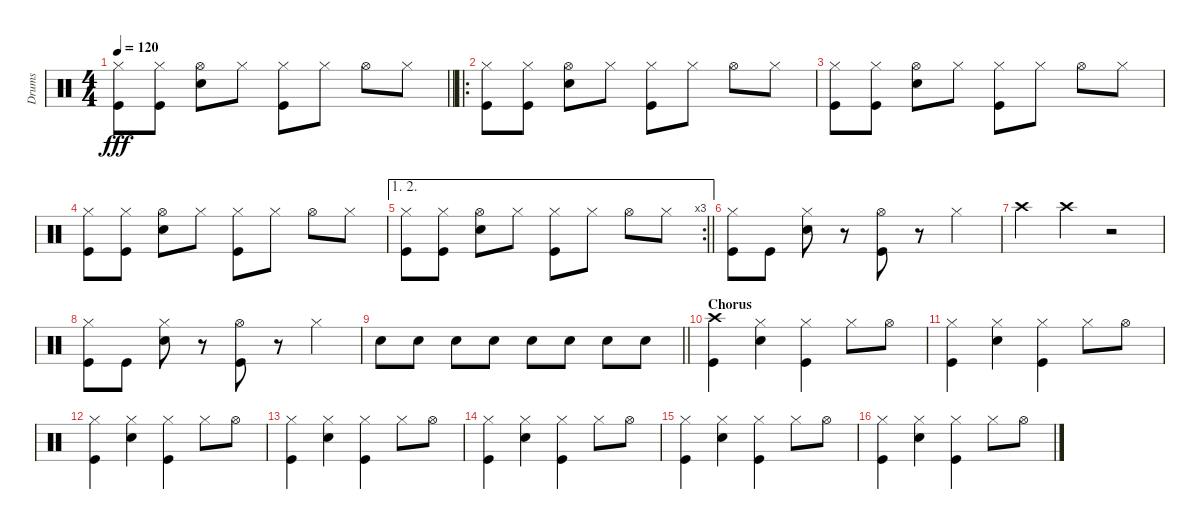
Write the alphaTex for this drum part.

\track ("Drums" "Drums") {instrument percussion}
\staff {score}
\articulation defaults
\ts (4 4)
\tempo 120
\clef neutral
\barLineRight lightlight
\ks c
("Hi-Hat (closed)" "Kick (hit)").8{dy fff} ("Hi-Hat (closed)" "Kick (hit)").8 ("Hi-Hat (open)" "Snare (hit) 2").8 "Hi-Hat (closed)".8 ("Hi-Hat (closed)" "Kick (hit)").8 "Hi-Hat (closed)".8 "Hi-Hat (open)".8 "Hi-Hat (closed)".8 |
\ro
("Hi-Hat (closed)" "Kick (hit)").8 ("Hi-Hat (closed)" "Kick (hit)").8 ("Hi-Hat (open)" "Snare (hit) 2").8 "Hi-Hat (closed)".8 ("Hi-Hat (closed)" "Kick (hit)").8 "Hi-Hat (closed)".8 "Hi-Hat (open)".8 "Hi-Hat (closed)".8 |
("Hi-Hat (closed)" "Kick (hit)").8 ("Hi-Hat (closed)" "Kick (hit)").8 ("Hi-Hat (open)" "Snare (hit) 2").8 "Hi-Hat (closed)".8 ("Hi-Hat (closed)" "Kick (hit)").8 "Hi-Hat (closed)".8 "Hi-Hat (open)".8 "Hi-Hat (closed)".8 |
("Hi-Hat (closed)" "Kick (hit)").8 ("Hi-Hat (closed)" "Kick (hit)").8 ("Hi-Hat (open)" "Snare (hit) 2").8 "Hi-Hat (closed)".8 ("Hi-Hat (closed)" "Kick (hit)").8 "Hi-Hat (closed)".8 "Hi-Hat (open)".8 "Hi-Hat (closed)".8 |
\ae (1 2)
\rc 3
\barLineRight lightlight
("Hi-Hat (closed)" "Kick (hit)").8 ("Hi-Hat (closed)" "Kick (hit)").8 ("Hi-Hat (open)" "Snare (hit) 2").8 "Hi-Hat (closed)".8 ("Hi-Hat (closed)" "Kick (hit)").8 "Hi-Hat (closed)".8 "Hi-Hat (open)".8 "Hi-Hat (closed)".8 |
("Hi-Hat (closed)" "Kick (hit)").8 "Kick (hit)".8 ("Hi-Hat (closed)" "Snare (hit) 2").8 r.8 ("Hi-Hat (open)" "Kick (hit)").8 r.8 "Hi-Hat (closed)".4 |
"Crash high (hit)".4 "Crash high (hit)".4 r.2 |
("Hi-Hat (closed)" "Kick (hit)").8 "Kick (hit)".8 ("Hi-Hat (closed)" "Snare (hit) 2").8 r.8 ("Hi-Hat (open)" "Kick (hit)").8 r.8 "Hi-Hat (closed)".4 |
\barLineRight lightlight "Snare (hit) 2".8 "Snare (hit) 2".8 "Snare (hit) 2".8 "Snare (hit) 2".8 "Snare (hit) 2".8 "Snare (hit) 2".8 "Snare (hit) 2".8 "Snare (hit) 2".8
|
\section ("" "Chorus")
("Crash high (hit)" "Kick (hit)").4 ("Hi-Hat (closed)" "Snare (hit) 2").4 ("Hi-Hat (closed)" "Kick (hit)").4 "Hi-Hat (closed)".8 "Hi-Hat (open)".8 |
("Hi-Hat (closed)" "Kick (hit)").4 ("Hi-Hat (closed)" "Snare (hit) 2").4 ("Hi-Hat (closed)" "Kick (hit)").4 "Hi-Hat (closed)".8 "Hi-Hat (open)".8 |
("Hi-Hat (closed)" "Kick (hit)").4 ("Hi-Hat (closed)" "Snare (hit) 2").4 ("Hi-Hat (closed)" "Kick (hit)").4 "Hi-Hat (closed)".8 "Hi-Hat (open)".8 |
("Hi-Hat (closed)" "Kick (hit)").4 ("Hi-Hat (closed)" "Snare (hit) 2").4 ("Hi-Hat (closed)" "Kick (hit)").4 "Hi-Hat (closed)".8 "Hi-Hat (open)".8 |
("Hi-Hat (closed)" "Kick (hit)").4 ("Hi-Hat (closed)" "Snare (hit) 2").4 ("Hi-Hat (closed)" "Kick (hit)").4 "Hi-Hat (closed)".8 "Hi-Hat (open)".8 |
("Hi-Hat (closed)" "Kick (hit)").4 ("Hi-Hat (closed)" "Snare (hit) 2").4 ("Hi-Hat (closed)" "Kick (hit)").4 "Hi-Hat (closed)".8 "Hi-Hat (open)".8 |
("Hi-Hat (closed)" "Kick (hit)").4 ("Hi-Hat (closed)" "Snare (hit) 2").4 ("Hi-Hat (closed)" "Kick (hit)").4 "Hi-Hat (closed)".8 "Hi-Hat (open)".8
